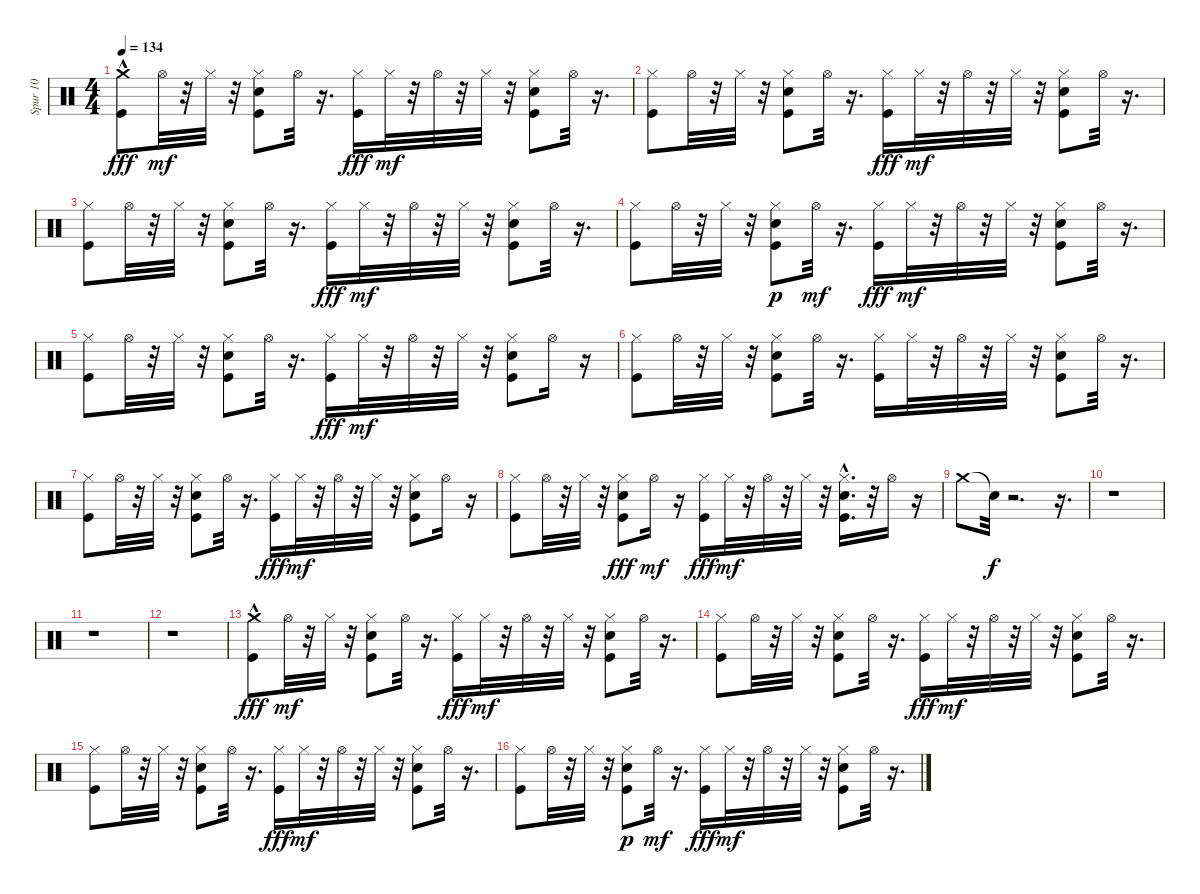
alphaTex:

\track ("Spur 10" "Spur 10") {instrument percussion}
\staff {score}
\articulation defaults
\ts (4 4)
\tempo 134
\clef neutral
\ks c
("Crash medium (hit)"{hac} "Kick (hit)").8{dy fff} "Hi-Hat (open)".32{dy mf} r.32 "Hi-Hat (closed)".32 r.32 ("Snare (hit) 2" "Kick (hit)" "Hi-Hat (closed)").8 "Hi-Hat (open)".32 r.16{d} ("Hi-Hat (closed)" "Kick (hit)").16{dy fff} "Hi-Hat (closed)".32{dy mf} r.32 "Hi-Hat (open)".32 r.32 "Hi-Hat (closed)".32 r.32 ("Snare (hit) 2" "Kick (hit)" "Hi-Hat (closed)").8 "Hi-Hat (open)".32 r.16{d} |
("Kick (hit)" "Hi-Hat (closed)").8 "Hi-Hat (open)".32 r.32 "Hi-Hat (closed)".32 r.32 ("Snare (hit) 2" "Kick (hit)" "Hi-Hat (closed)").8 "Hi-Hat (open)".32 r.16{d} ("Hi-Hat (closed)" "Kick (hit)").16{dy fff} "Hi-Hat (closed)".32{dy mf} r.32 "Hi-Hat (open)".32 r.32 "Hi-Hat (closed)".32 r.32 ("Kick (hit)" "Snare (hit) 2" "Hi-Hat (closed)").8 "Hi-Hat (open)".32 r.16{d} |
("Kick (hit)" "Hi-Hat (closed)").8 "Hi-Hat (open)".32 r.32 "Hi-Hat (closed)".32 r.32 ("Kick (hit)" "Snare (hit) 2" "Hi-Hat (closed)").8 "Hi-Hat (open)".32 r.16{d} ("Hi-Hat (closed)" "Kick (hit)").16{dy fff} "Hi-Hat (closed)".32{dy mf} r.32 "Hi-Hat (open)".32 r.32 "Hi-Hat (closed)".32 r.32 ("Snare (hit) 2" "Kick (hit)" "Hi-Hat (closed)").8 "Hi-Hat (open)".32 r.16{d} |
("Kick (hit)" "Hi-Hat (closed)").8 "Hi-Hat (open)".32 r.32 "Hi-Hat (closed)".32 r.32 ("Hi-Hat (closed)" "Kick (hit)" "Snare (hit) 2").8{dy p} "Hi-Hat (open)".32{dy mf} r.16{d} ("Hi-Hat (closed)" "Kick (hit)").16{dy fff} "Hi-Hat (closed)".32{dy mf} r.32 "Hi-Hat (open)".32 r.32 "Hi-Hat (closed)".32 r.32 ("Kick (hit)" "Snare (hit) 2" "Hi-Hat (closed)").8 "Hi-Hat (open)".32 r.16{d} |
("Kick (hit)" "Hi-Hat (closed)").8 "Hi-Hat (open)".32 r.32 "Hi-Hat (closed)".32 r.32 ("Snare (hit) 2" "Kick (hit)" "Hi-Hat (closed)").8 "Hi-Hat (open)".32 r.16{d} ("Hi-Hat (closed)" "Kick (hit)").16{dy fff} "Hi-Hat (closed)".32{dy mf} r.32 "Hi-Hat (open)".32 r.32 "Hi-Hat (closed)".32 r.32 ("Snare (hit) 2" "Kick (hit)" "Hi-Hat (closed)").8 "Hi-Hat (open)".16 r.16 |
("Kick (hit)" "Hi-Hat (closed)").8 "Hi-Hat (open)".32 r.32 "Hi-Hat (closed)".32 r.32 ("Snare (hit) 2" "Kick (hit)" "Hi-Hat (closed)").8 "Hi-Hat (open)".32 r.16{d} ("Kick (hit)" "Hi-Hat (closed)").16 "Hi-Hat (closed)".32 r.32 "Hi-Hat (open)".32 r.32 "Hi-Hat (closed)".32 r.32 ("Snare (hit) 2" "Kick (hit)" "Hi-Hat (closed)").8 "Hi-Hat (open)".32 r.16{d} |
("Kick (hit)" "Hi-Hat (closed)").8 "Hi-Hat (open)".32 r.32 "Hi-Hat (closed)".32 r.32 ("Snare (hit) 2" "Kick (hit)" "Hi-Hat (closed)").8 "Hi-Hat (open)".32 r.16{d} ("Hi-Hat (closed)" "Kick (hit)").16{dy fff} "Hi-Hat (closed)".32{dy mf} r.32 "Hi-Hat (open)".32 r.32 "Hi-Hat (closed)".32 r.32 ("Snare (hit) 2" "Kick (hit)" "Hi-Hat (closed)").8 "Hi-Hat (open)".16 r.16 |
("Kick (hit)" "Hi-Hat (closed)").8 "Hi-Hat (open)".32 r.32 "Hi-Hat (closed)".32 r.32 ("Hi-Hat (closed)" "Snare (hit) 2" "Kick (hit)").8{dy fff} "Hi-Hat (open)".16{dy mf} r.16 ("Hi-Hat (closed)" "Kick (hit)").16{dy fff} "Hi-Hat (closed)".32{dy mf} r.32 "Hi-Hat (open)".32 r.32 "Hi-Hat (closed)".32 r.32 ("Snare (hit) 2" "Kick (hit)"{hac} "Hi-Hat (closed)").16{d} r.32 "Hi-Hat (open)".16 r.16 |
"Crash medium (hit)".8 "Snare (hit)"{t}.32{dy f} r.2{d} r.16{d} |
r.1 |
r.1 |
r.1 |
("Crash medium (hit)"{hac} "Kick (hit)").8{dy fff} "Hi-Hat (open)".32{dy mf} r.32 "Hi-Hat (closed)".32 r.32 ("Snare (hit) 2" "Kick (hit)" "Hi-Hat (closed)").8 "Hi-Hat (open)".32 r.16{d} ("Hi-Hat (closed)" "Kick (hit)").16{dy fff} "Hi-Hat (closed)".32{dy mf} r.32 "Hi-Hat (open)".32 r.32 "Hi-Hat (closed)".32 r.32 ("Snare (hit) 2" "Kick (hit)" "Hi-Hat (closed)").8 "Hi-Hat (open)".32 r.16{d} |
("Kick (hit)" "Hi-Hat (closed)").8 "Hi-Hat (open)".32 r.32 "Hi-Hat (closed)".32 r.32 ("Snare (hit) 2" "Kick (hit)" "Hi-Hat (closed)").8 "Hi-Hat (open)".32 r.16{d} ("Hi-Hat (closed)" "Kick (hit)").16{dy fff} "Hi-Hat (closed)".32{dy mf} r.32 "Hi-Hat (open)".32 r.32 "Hi-Hat (closed)".32 r.32 ("Kick (hit)" "Snare (hit) 2" "Hi-Hat (closed)").8 "Hi-Hat (open)".32 r.16{d} |
("Kick (hit)" "Hi-Hat (closed)").8 "Hi-Hat (open)".32 r.32 "Hi-Hat (closed)".32 r.32 ("Kick (hit)" "Snare (hit) 2" "Hi-Hat (closed)").8 "Hi-Hat (open)".32 r.16{d} ("Hi-Hat (closed)" "Kick (hit)").16{dy fff} "Hi-Hat (closed)".32{dy mf} r.32 "Hi-Hat (open)".32 r.32 "Hi-Hat (closed)".32 r.32 ("Snare (hit) 2" "Kick (hit)" "Hi-Hat (closed)").8 "Hi-Hat (open)".32 r.16{d} |
("Kick (hit)" "Hi-Hat (closed)").8 "Hi-Hat (open)".32 r.32 "Hi-Hat (closed)".32 r.32 ("Hi-Hat (closed)" "Kick (hit)" "Snare (hit) 2").8{dy p} "Hi-Hat (open)".32{dy mf} r.16{d} ("Hi-Hat (closed)" "Kick (hit)").16{dy fff} "Hi-Hat (closed)".32{dy mf} r.32 "Hi-Hat (open)".32 r.32 "Hi-Hat (closed)".32 r.32 ("Kick (hit)" "Snare (hit) 2" "Hi-Hat (closed)").8 "Hi-Hat (open)".32 r.16{d}
